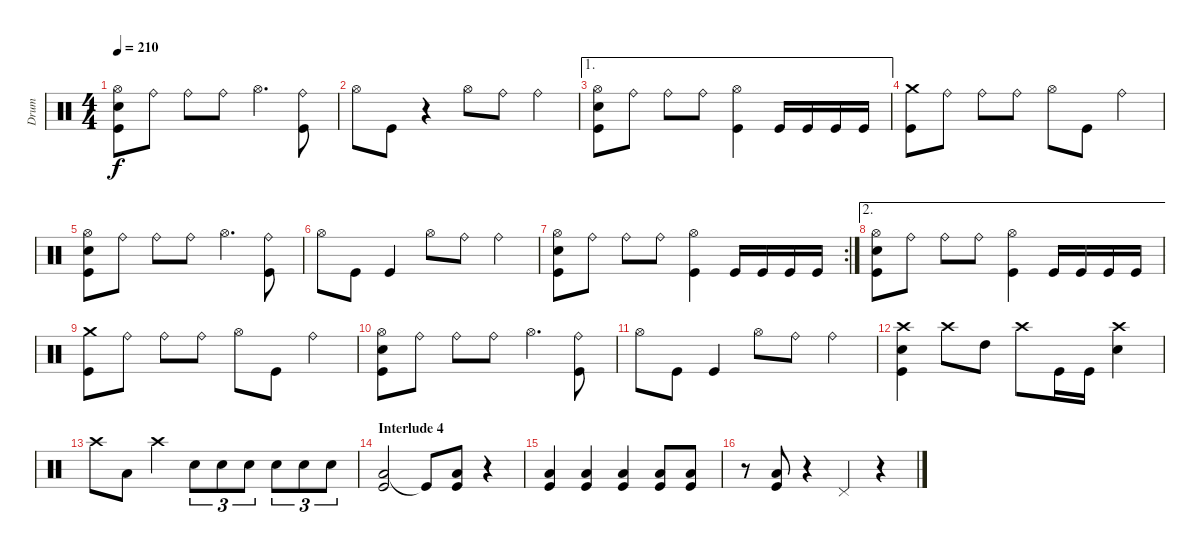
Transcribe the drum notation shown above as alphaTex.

\track ("Drum" "Drum") {instrument percussion}
\staff {score}
\articulation defaults
\ts (4 4)
\tempo 210
\clef neutral
\ks c
("Hi-Hat (open)" "Snare (hit) 2" "Kick (hit)").8{dy f} "Ride (bell)".8 "Ride (bell)".8 "Ride (bell)".8 "Hi-Hat (open)".4{d} ("Ride (bell)" "Kick (hit)").8 |
"Hi-Hat (open)".8 "Kick (hit)".8 r.4 "Hi-Hat (open)".8 "Ride (bell)".8 "Ride (bell)".4 |
\ae 1
("Hi-Hat (open)" "Snare (hit) 2" "Kick (hit)").8 "Ride (bell)".8 "Ride (bell)".8 "Ride (bell)".8 ("Hi-Hat (open)" "Kick (hit)").4 "Kick (hit)".16 "Kick (hit)".16 "Kick (hit)".16 "Kick (hit)".16 |
("Crash medium (hit)" "Kick (hit)").8 "Ride (bell)".8 "Ride (bell)".8 "Ride (bell)".8 "Hi-Hat (open)".8 "Kick (hit)".8 "Ride (bell)".4 |
("Hi-Hat (open)" "Snare (hit) 2" "Kick (hit)").8 "Ride (bell)".8 "Ride (bell)".8 "Ride (bell)".8 "Hi-Hat (open)".4{d} ("Ride (bell)" "Kick (hit)").8 |
"Hi-Hat (open)".8 "Kick (hit)".8 "Kick (hit)".4 "Hi-Hat (open)".8 "Ride (bell)".8 "Ride (bell)".4 |
\rc 2
("Hi-Hat (open)" "Snare (hit) 2" "Kick (hit)").8 "Ride (bell)".8 "Ride (bell)".8 "Ride (bell)".8 ("Hi-Hat (open)" "Kick (hit)").4 "Kick (hit)".16 "Kick (hit)".16 "Kick (hit)".16 "Kick (hit)".16 |
\ae 2
("Hi-Hat (open)" "Snare (hit) 2" "Kick (hit)").8 "Ride (bell)".8 "Ride (bell)".8 "Ride (bell)".8 ("Hi-Hat (open)" "Kick (hit)").4 "Kick (hit)".16 "Kick (hit)".16 "Kick (hit)".16 "Kick (hit)".16 |
("Crash medium (hit)" "Kick (hit)").8 "Ride (bell)".8 "Ride (bell)".8 "Ride (bell)".8 "Hi-Hat (open)".8 "Kick (hit)".8 "Ride (bell)".4 |
("Hi-Hat (open)" "Snare (hit) 2" "Kick (hit)").8 "Ride (bell)".8 "Ride (bell)".8 "Ride (bell)".8 "Hi-Hat (open)".4{d} ("Ride (bell)" "Kick (hit)").8 |
"Hi-Hat (open)".8 "Kick (hit)".8 "Kick (hit)".4 "Hi-Hat (open)".8 "Ride (bell)".8 "Ride (bell)".4 |
("Crash high (hit)" "Snare (hit) 2" "Kick (hit)").4 "Crash high (hit)".8 "High Tom (hit)".8 "Crash high (hit)".8 "Kick (hit)".16 "Kick (hit)".16 ("Crash high (hit)" "Snare (hit) 2").4 |
"Crash high (hit)".8 "Low Tom (hit)".8 "Crash high (hit)".4 "Snare (hit) 2".8{tu (3 2)} "Snare (hit) 2".8{tu (3 2)} "Snare (hit) 2".8{tu (3 2)} "Snare (hit) 2".8{tu (3 2)} "Snare (hit) 2".8{tu (3 2)} "Snare (hit) 2".8{tu (3 2)} |
\section ("" "Interlude 4")
("Low Floor Tom (hit)" "Kick (hit)").2 "Kick (hit)"{t}.8 ("Low Floor Tom (hit)" "Kick (hit)").8 r.4 |
("Low Floor Tom (hit)" "Kick (hit)").4 ("Low Floor Tom (hit)" "Kick (hit)").4 ("Low Floor Tom (hit)" "Kick (hit)").4 ("Low Floor Tom (hit)" "Kick (hit)").8 ("Low Floor Tom (hit)" "Kick (hit)").8 |
r.8 ("Low Floor Tom (hit)" "Kick (hit)").8 r.4 "Pedal Hi-Hat (hit)".4 r.4
